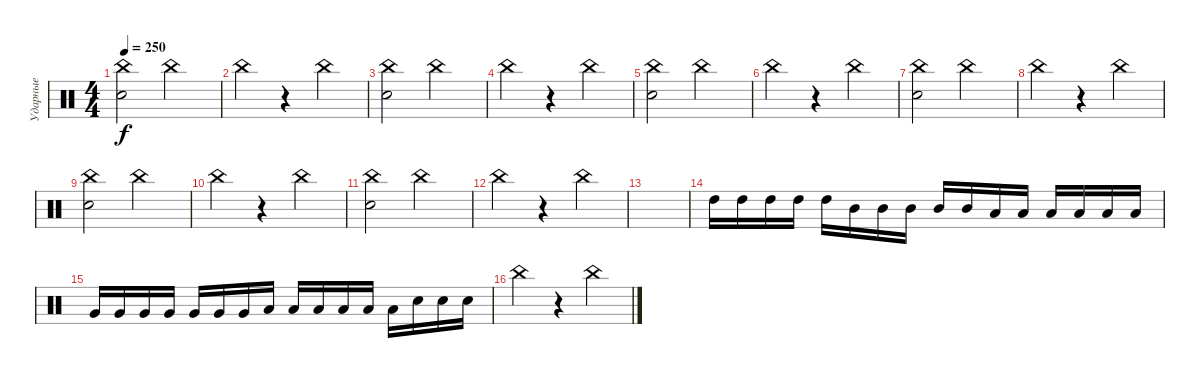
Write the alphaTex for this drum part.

\track ("Ударные" "Ударные") {instrument percussion}
\staff {score}
\articulation defaults
\ts (4 4)
\tempo 250
\clef neutral
\ks c
("China (hit)" "Snare (hit) 2").2{dy f} "China (hit)".2 |
"China (hit)".4 r.4 "China (hit)".4 |
("China (hit)" "Snare (hit) 2").2 "China (hit)".2 |
"China (hit)".4 r.4 "China (hit)".4 |
("China (hit)" "Snare (hit) 2").2 "China (hit)".2 |
"China (hit)".4 r.4 "China (hit)".4 |
("China (hit)" "Snare (hit) 2").2 "China (hit)".2 |
"China (hit)".4 r.4 "China (hit)".4 |
("China (hit)" "Snare (hit) 2").2 "China (hit)".2 |
"China (hit)".4 r.4 "China (hit)".4 |
("China (hit)" "Snare (hit) 2").2 "China (hit)".2 |
"China (hit)".4 r.4 "China (hit)".4 |
|
"High Tom (hit)".16 "High Tom (hit)".16 "High Tom (hit)".16 "High Tom (hit)".16 "High Tom (hit)".16 "Mid Tom (hit)".16 "Mid Tom (hit)".16 "Mid Tom (hit)".16 "Mid Tom (hit)".16 "Mid Tom (hit)".16 "Low Tom (hit)".16 "Low Tom (hit)".16 "Low Tom (hit)".16 "Low Tom (hit)".16 "Low Tom (hit)".16 "Low Tom (hit)".16 |
"Very Low Tom (hit)".16 "Very Low Tom (hit)".16 "Very Low Tom (hit)".16 "Very Low Tom (hit)".16 "Very Low Tom (hit)".16 "Very Low Tom (hit)".16 "Very Low Tom (hit)".16 "Low Floor Tom (hit)".16 "Low Floor Tom (hit)".16 "Low Floor Tom (hit)".16 "Low Floor Tom (hit)".16 "Low Floor Tom (hit)".16 "Low Floor Tom (hit)".16 "Snare (hit) 2".16 "Snare (hit) 2".16 "Snare (hit) 2".16 |
"China (hit)".4 r.4 "China (hit)".4
